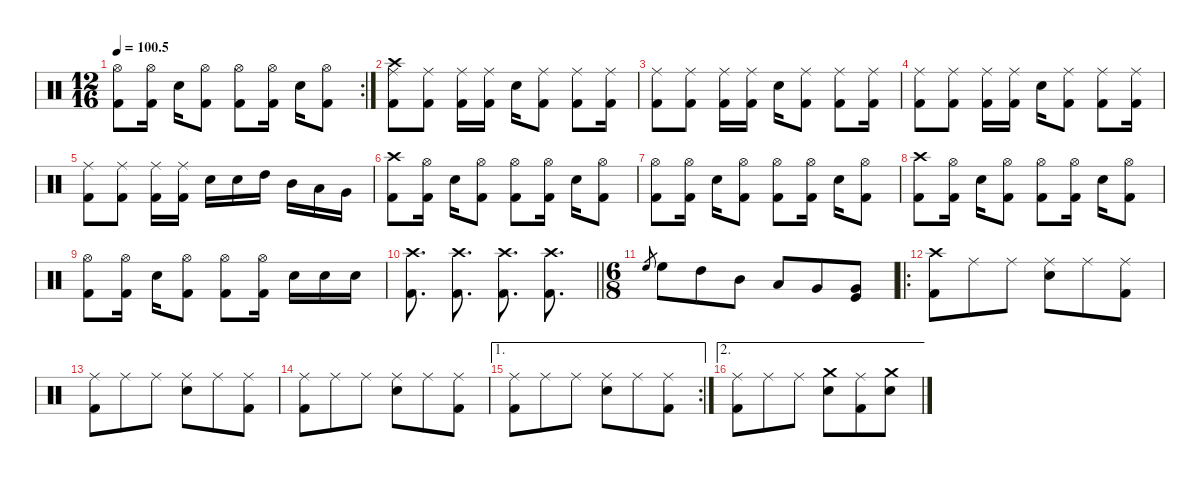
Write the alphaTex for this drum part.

\defaultSystemsLayout 4
\hideDynamics
\bracketExtendMode nobrackets
\singleTrackTrackNamePolicy hidden
\multiTrackTrackNamePolicy hidden
\firstSystemTrackNameMode fullname
\firstSystemTrackNameOrientation horizontal
\otherSystemsTrackNameOrientation horizontal
\track ("Drums" "drm.") {instrument percussion}
\staff {score}
\articulation defaults
\rc 2
\ts (12 16)
\tempo
100.5
\accidentals auto
\clef neutral
\ottava regular
\simile none
\ks c
("Hi-Hat (open)" "Kick (hit) 2").8{dy mf beam Down} ("Hi-Hat (open)" "Kick (hit) 2").16{beam Down} "Snare (hit) 2".16{dy f beam Down} ("Hi-Hat (open)" "Kick (hit) 2").8{dy mf beam Down} ("Hi-Hat (open)" "Kick (hit) 2").8{beam Down} ("Hi-Hat (open)" "Kick (hit) 2").16{beam Down} "Snare (hit) 2".16{dy f beam Down} ("Hi-Hat (open)" "Kick (hit) 2").8{dy mf beam Down} |
("Ride (middle)" "Crash high (hit)" "Kick (hit) 2").8{dy f beam Down} ("Ride (middle)" "Kick (hit) 2").8{beam Down} ("Ride (middle)" "Kick (hit) 2").16{beam Down} ("Ride (middle)" "Kick (hit) 2").16{beam Down} "Snare (hit) 2".16{beam Down} ("Ride (middle)" "Kick (hit) 2").8{beam Down} ("Ride (middle)" "Kick (hit) 2").8{beam Down} ("Ride (middle)" "Kick (hit) 2").16{beam Down} |
("Ride (middle)" "Kick (hit) 2").8{beam Down} ("Ride (middle)" "Kick (hit) 2").8{beam Down} ("Ride (middle)" "Kick (hit) 2").16{beam Down} ("Ride (middle)" "Kick (hit) 2").16{beam Down} "Snare (hit) 2".16{beam Down} ("Ride (middle)" "Kick (hit) 2").8{beam Down} ("Ride (middle)" "Kick (hit) 2").8{beam Down} ("Ride (middle)" "Kick (hit) 2").16{beam Down} |
("Ride (middle)" "Kick (hit) 2").8{beam Down} ("Ride (middle)" "Kick (hit) 2").8{beam Down} ("Ride (middle)" "Kick (hit) 2").16{beam Down} ("Ride (middle)" "Kick (hit) 2").16{beam Down} "Snare (hit) 2".16{beam Down} ("Ride (middle)" "Kick (hit) 2").8{beam Down} ("Ride (middle)" "Kick (hit) 2").8{beam Down} ("Ride (middle)" "Kick (hit) 2").16{beam Down} |
("Ride (middle)" "Kick (hit) 2").8{beam Down} ("Ride (middle)" "Kick (hit) 2").8{beam Down} ("Ride (middle)" "Kick (hit) 2").16{beam Down} ("Ride (middle)" "Kick (hit) 2").16{beam Down} "Snare (hit) 2".16{beam Down} "Snare (hit) 2".16{beam Down} "High Tom (hit)".16{beam Down} "Mid Tom (hit)".16{beam Down} "Low Tom (hit)".16{beam Down} "Very Low Tom (hit)".16{beam Down} |
("Crash high (hit)" "Kick (hit) 2").8{beam Down} ("Hi-Hat (open)" "Kick (hit) 2").16{dy mf beam Down} "Snare (hit) 2".16{dy f beam Down} ("Hi-Hat (open)" "Kick (hit) 2").8{dy mf beam Down} ("Hi-Hat (open)" "Kick (hit) 2").8{beam Down} ("Hi-Hat (open)" "Kick (hit) 2").16{beam Down} "Snare (hit) 2".16{dy f beam Down} ("Hi-Hat (open)" "Kick (hit) 2").8{dy mf beam Down} |
("Hi-Hat (open)" "Kick (hit) 2").8{beam Down} ("Hi-Hat (open)" "Kick (hit) 2").16{beam Down} "Snare (hit) 2".16{dy f beam Down} ("Hi-Hat (open)" "Kick (hit) 2").8{dy mf beam Down} ("Hi-Hat (open)" "Kick (hit) 2").8{beam Down} ("Hi-Hat (open)" "Kick (hit) 2").16{beam Down} "Snare (hit) 2".16{dy f beam Down} ("Hi-Hat (open)" "Kick (hit) 2").8{dy mf beam Down} |
("Crash high (hit)" "Kick (hit) 2").8{dy f beam Down} ("Hi-Hat (open)" "Kick (hit) 2").16{dy mf beam Down} "Snare (hit) 2".16{dy f beam Down} ("Hi-Hat (open)" "Kick (hit) 2").8{dy mf beam Down} ("Hi-Hat (open)" "Kick (hit) 2").8{beam Down} ("Hi-Hat (open)" "Kick (hit) 2").16{beam Down} "Snare (hit) 2".16{dy f beam Down} ("Hi-Hat (open)" "Kick (hit) 2").8{dy mf beam Down} |
("Hi-Hat (open)" "Kick (hit) 2").8{beam Down} ("Hi-Hat (open)" "Kick (hit) 2").16{beam Down} "Snare (hit) 2".16{dy f beam Down} ("Hi-Hat (open)" "Kick (hit) 2").8{dy mf beam Down} ("Hi-Hat (open)" "Kick (hit) 2").8{beam Down} ("Hi-Hat (open)" "Kick (hit) 2").16{beam Down} "Snare (hit) 2".16{dy f beam Down} "Snare (hit) 2".16{beam Down} "Snare (hit) 2".16{beam Down} |
\barLineRight lightlight
("Crash high (hit)" "Kick (hit) 2").8{d beam Down} ("Crash high (hit)" "Kick (hit) 2").8{d beam Down} ("Crash high (hit)" "Kick (hit) 2").8{d beam Down} ("Crash high (hit)" "Kick (hit) 2").8{d beam Down} |
\ts (6 8)
\beaming (8 3 3)
"High Floor Tom (hit)".8{gr dy mf beam Up} "High Floor Tom (hit)".8{dy f beam Down} "High Tom (hit)".8{beam Down} "Mid Tom (hit)".8{beam Down} "Low Tom (hit)".8{beam Up} "Very Low Tom (hit)".8{beam Up} ("Very Low Tom (hit)" "Kick (hit)").8{beam Up} |
\ro
("Crash high (hit)" "Kick (hit) 2").8{beam Down} "Ride (middle)".8{beam Down} "Ride (middle)".8{beam Down} ("Ride (middle)" "Snare (hit) 2").8{beam Down} "Ride (middle)".8{beam Down} ("Ride (middle)" "Kick (hit) 2").8{beam Down} |
("Ride (middle)" "Kick (hit) 2").8{beam Down} "Ride (middle)".8{beam Down} "Ride (middle)".8{beam Down} ("Ride (middle)" "Snare (hit) 2").8{beam Down} "Ride (middle)".8{beam Down} ("Ride (middle)" "Kick (hit) 2").8{beam Down} |
("Ride (middle)" "Kick (hit) 2").8{beam Down} "Ride (middle)".8{beam Down} "Ride (middle)".8{beam Down} ("Ride (middle)" "Snare (hit) 2").8{beam Down} "Ride (middle)".8{beam Down} ("Ride (middle)" "Kick (hit) 2").8{beam Down} |
\ae 1
\rc 2
("Ride (middle)" "Kick (hit) 2").8{beam Down} "Ride (middle)".8{beam Down} "Ride (middle)".8{beam Down} ("Ride (middle)" "Snare (hit) 2").8{beam Down} "Ride (middle)".8{beam Down} ("Ride (middle)" "Kick (hit) 2").8{beam Down} |
\ae 2
("Ride (middle)" "Kick (hit) 2").8{beam Down} "Ride (middle)".8{beam Down} "Ride (middle)".8{beam Down} ("Crash medium (hit)" "Snare (hit) 2").8{beam Down} ("Ride (middle)" "Kick (hit) 2").8{beam Down} ("Crash medium (hit)" "Snare (hit) 2").8{beam Down}
